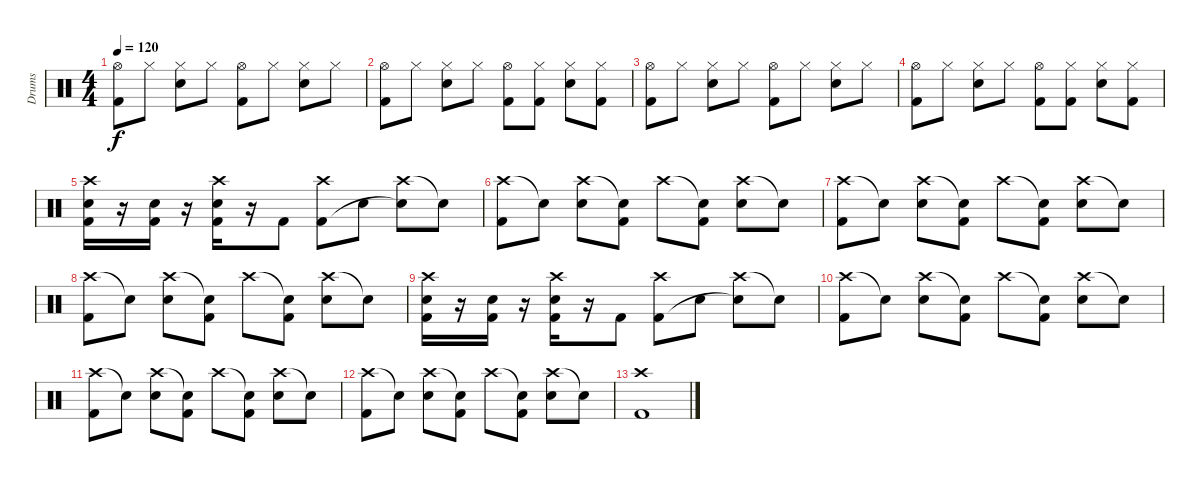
\track ("Drums" "Drums") {instrument percussion}
\staff {score}
\articulation defaults
\ts (4 4)
\tempo 120
\clef neutral
\ks c
("Hi-Hat (open)" "Kick (hit) 2").8{dy f} "Hi-Hat (closed)".8 ("Hi-Hat (closed)" "Electric Snare (hit)").8 "Hi-Hat (closed)".8 ("Hi-Hat (open)" "Kick (hit) 2").8 "Hi-Hat (closed)".8 ("Hi-Hat (closed)" "Electric Snare (hit)").8 "Hi-Hat (closed)".8 |
("Hi-Hat (open)" "Kick (hit) 2").8 "Hi-Hat (closed)".8 ("Hi-Hat (closed)" "Electric Snare (hit)").8 "Hi-Hat (closed)".8 ("Hi-Hat (open)" "Kick (hit) 2").8 ("Hi-Hat (closed)" "Kick (hit) 2").8 ("Hi-Hat (closed)" "Electric Snare (hit)").8 ("Hi-Hat (closed)" "Kick (hit) 2").8 |
("Hi-Hat (open)" "Kick (hit) 2").8 "Hi-Hat (closed)".8 ("Hi-Hat (closed)" "Electric Snare (hit)").8 "Hi-Hat (closed)".8 ("Hi-Hat (open)" "Kick (hit) 2").8 "Hi-Hat (closed)".8 ("Hi-Hat (closed)" "Electric Snare (hit)").8 "Hi-Hat (closed)".8 |
("Hi-Hat (open)" "Kick (hit) 2").8 "Hi-Hat (closed)".8 ("Hi-Hat (closed)" "Electric Snare (hit)").8 "Hi-Hat (closed)".8 ("Hi-Hat (open)" "Kick (hit) 2").8 ("Hi-Hat (closed)" "Kick (hit) 2").8 ("Hi-Hat (closed)" "Electric Snare (hit)").8 ("Hi-Hat (closed)" "Kick (hit) 2").8 |
("Crash high (hit)" "Electric Snare (hit)" "Kick (hit) 2").16 r.16 ("Electric Snare (hit)" "Kick (hit) 2").16 r.16 ("Crash high (hit)" "Electric Snare (hit)" "Kick (hit) 2").16 r.16 "Kick (hit) 2".8 ("Crash high (hit)" "Kick (hit) 2").8 "Electric Snare (hit)".8 ("Crash high (hit)" "Snare (hit)"{t}).8 "Snare (hit)"{t}.8 |
("Crash high (hit)" "Kick (hit) 2").8 "Snare (hit)"{t}.8 ("Crash high (hit)" "Electric Snare (hit)").8 ("Snare (hit)"{t} "Kick (hit) 2").8 "Crash high (hit)".8 ("Snare (hit)"{t} "Kick (hit) 2").8 ("Crash high (hit)" "Electric Snare (hit)").8 "Snare (hit)"{t}.8 |
("Crash high (hit)" "Kick (hit) 2").8 "Snare (hit)"{t}.8 ("Crash high (hit)" "Electric Snare (hit)").8 ("Snare (hit)"{t} "Kick (hit) 2").8 "Crash high (hit)".8 ("Snare (hit)"{t} "Kick (hit) 2").8 ("Crash high (hit)" "Electric Snare (hit)").8 "Snare (hit)"{t}.8 |
("Crash high (hit)" "Kick (hit) 2").8 "Snare (hit)"{t}.8 ("Crash high (hit)" "Electric Snare (hit)").8 ("Snare (hit)"{t} "Kick (hit) 2").8 "Crash high (hit)".8 ("Snare (hit)"{t} "Kick (hit) 2").8 ("Crash high (hit)" "Electric Snare (hit)").8 "Snare (hit)"{t}.8 |
("Crash high (hit)" "Electric Snare (hit)" "Kick (hit) 2").16 r.16 ("Electric Snare (hit)" "Kick (hit) 2").16 r.16 ("Crash high (hit)" "Electric Snare (hit)" "Kick (hit) 2").16 r.16 "Kick (hit) 2".8 ("Crash high (hit)" "Kick (hit) 2").8 "Electric Snare (hit)".8 ("Crash high (hit)" "Snare (hit)"{t}).8 "Snare (hit)"{t}.8 |
("Crash high (hit)" "Kick (hit) 2").8 "Snare (hit)"{t}.8 ("Crash high (hit)" "Electric Snare (hit)").8 ("Snare (hit)"{t} "Kick (hit) 2").8 "Crash high (hit)".8 ("Snare (hit)"{t} "Kick (hit) 2").8 ("Crash high (hit)" "Electric Snare (hit)").8 "Snare (hit)"{t}.8 |
("Crash high (hit)" "Kick (hit) 2").8 "Snare (hit)"{t}.8 ("Crash high (hit)" "Electric Snare (hit)").8 ("Snare (hit)"{t} "Kick (hit) 2").8 "Crash high (hit)".8 ("Snare (hit)"{t} "Kick (hit) 2").8 ("Crash high (hit)" "Electric Snare (hit)").8 "Snare (hit)"{t}.8 |
("Crash high (hit)" "Kick (hit) 2").8 "Snare (hit)"{t}.8 ("Crash high (hit)" "Electric Snare (hit)").8 ("Snare (hit)"{t} "Kick (hit) 2").8 "Crash high (hit)".8 ("Snare (hit)"{t} "Kick (hit) 2").8 ("Crash high (hit)" "Electric Snare (hit)").8 "Snare (hit)"{t}.8 |
("Crash high (hit)" "Kick (hit) 2").1
